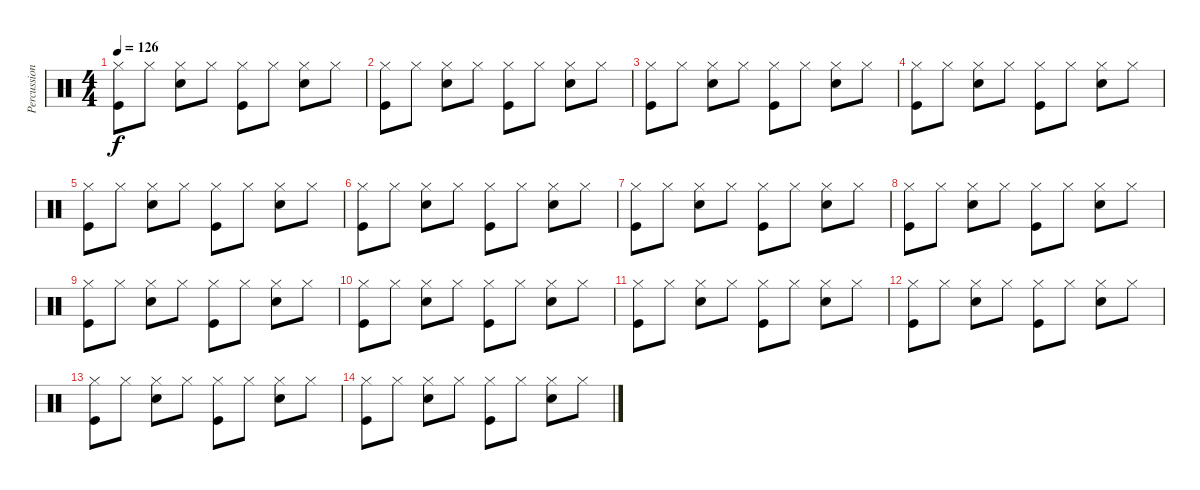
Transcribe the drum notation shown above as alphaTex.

\track ("Percussions" "Percussion") {instrument percussion}
\staff {score}
\articulation defaults
\ts (4 4)
\tempo 126
\clef neutral
\ks c
("Hi-Hat (closed)" "Kick (hit)").8{dy f} "Hi-Hat (closed)".8 ("Hi-Hat (closed)" "Snare (hit) 2").8 "Hi-Hat (closed)".8 ("Hi-Hat (closed)" "Kick (hit)").8 "Hi-Hat (closed)".8 ("Hi-Hat (closed)" "Snare (hit) 2").8 "Hi-Hat (closed)".8 |
("Hi-Hat (closed)" "Kick (hit)").8 "Hi-Hat (closed)".8 ("Hi-Hat (closed)" "Snare (hit) 2").8 "Hi-Hat (closed)".8 ("Hi-Hat (closed)" "Kick (hit)").8 "Hi-Hat (closed)".8 ("Hi-Hat (closed)" "Snare (hit) 2").8 "Hi-Hat (closed)".8 |
("Hi-Hat (closed)" "Kick (hit)").8 "Hi-Hat (closed)".8 ("Hi-Hat (closed)" "Snare (hit) 2").8 "Hi-Hat (closed)".8 ("Hi-Hat (closed)" "Kick (hit)").8 "Hi-Hat (closed)".8 ("Hi-Hat (closed)" "Snare (hit) 2").8 "Hi-Hat (closed)".8 |
("Hi-Hat (closed)" "Kick (hit)").8 "Hi-Hat (closed)".8 ("Hi-Hat (closed)" "Snare (hit) 2").8 "Hi-Hat (closed)".8 ("Hi-Hat (closed)" "Kick (hit)").8 "Hi-Hat (closed)".8 ("Hi-Hat (closed)" "Snare (hit) 2").8 "Hi-Hat (closed)".8 |
("Hi-Hat (closed)" "Kick (hit)").8 "Hi-Hat (closed)".8 ("Hi-Hat (closed)" "Snare (hit) 2").8 "Hi-Hat (closed)".8 ("Hi-Hat (closed)" "Kick (hit)").8 "Hi-Hat (closed)".8 ("Hi-Hat (closed)" "Snare (hit) 2").8 "Hi-Hat (closed)".8 |
("Hi-Hat (closed)" "Kick (hit)").8 "Hi-Hat (closed)".8 ("Hi-Hat (closed)" "Snare (hit) 2").8 "Hi-Hat (closed)".8 ("Hi-Hat (closed)" "Kick (hit)").8 "Hi-Hat (closed)".8 ("Hi-Hat (closed)" "Snare (hit) 2").8 "Hi-Hat (closed)".8 |
("Hi-Hat (closed)" "Kick (hit)").8 "Hi-Hat (closed)".8 ("Hi-Hat (closed)" "Snare (hit) 2").8 "Hi-Hat (closed)".8 ("Hi-Hat (closed)" "Kick (hit)").8 "Hi-Hat (closed)".8 ("Hi-Hat (closed)" "Snare (hit) 2").8 "Hi-Hat (closed)".8 |
("Hi-Hat (closed)" "Kick (hit)").8 "Hi-Hat (closed)".8 ("Hi-Hat (closed)" "Snare (hit) 2").8 "Hi-Hat (closed)".8 ("Hi-Hat (closed)" "Kick (hit)").8 "Hi-Hat (closed)".8 ("Hi-Hat (closed)" "Snare (hit) 2").8 "Hi-Hat (closed)".8 |
("Hi-Hat (closed)" "Kick (hit)").8 "Hi-Hat (closed)".8 ("Hi-Hat (closed)" "Snare (hit) 2").8 "Hi-Hat (closed)".8 ("Hi-Hat (closed)" "Kick (hit)").8 "Hi-Hat (closed)".8 ("Hi-Hat (closed)" "Snare (hit) 2").8 "Hi-Hat (closed)".8 |
("Hi-Hat (closed)" "Kick (hit)").8 "Hi-Hat (closed)".8 ("Hi-Hat (closed)" "Snare (hit) 2").8 "Hi-Hat (closed)".8 ("Hi-Hat (closed)" "Kick (hit)").8 "Hi-Hat (closed)".8 ("Hi-Hat (closed)" "Snare (hit) 2").8 "Hi-Hat (closed)".8 |
("Hi-Hat (closed)" "Kick (hit)").8 "Hi-Hat (closed)".8 ("Hi-Hat (closed)" "Snare (hit) 2").8 "Hi-Hat (closed)".8 ("Hi-Hat (closed)" "Kick (hit)").8 "Hi-Hat (closed)".8 ("Hi-Hat (closed)" "Snare (hit) 2").8 "Hi-Hat (closed)".8 |
("Hi-Hat (closed)" "Kick (hit)").8 "Hi-Hat (closed)".8 ("Hi-Hat (closed)" "Snare (hit) 2").8 "Hi-Hat (closed)".8 ("Hi-Hat (closed)" "Kick (hit)").8 "Hi-Hat (closed)".8 ("Hi-Hat (closed)" "Snare (hit) 2").8 "Hi-Hat (closed)".8 |
("Hi-Hat (closed)" "Kick (hit)").8 "Hi-Hat (closed)".8 ("Hi-Hat (closed)" "Snare (hit) 2").8 "Hi-Hat (closed)".8 ("Hi-Hat (closed)" "Kick (hit)").8 "Hi-Hat (closed)".8 ("Hi-Hat (closed)" "Snare (hit) 2").8 "Hi-Hat (closed)".8 |
("Hi-Hat (closed)" "Kick (hit)").8 "Hi-Hat (closed)".8 ("Hi-Hat (closed)" "Snare (hit) 2").8 "Hi-Hat (closed)".8 ("Hi-Hat (closed)" "Kick (hit)").8 "Hi-Hat (closed)".8 ("Hi-Hat (closed)" "Snare (hit) 2").8 "Hi-Hat (closed)".8
